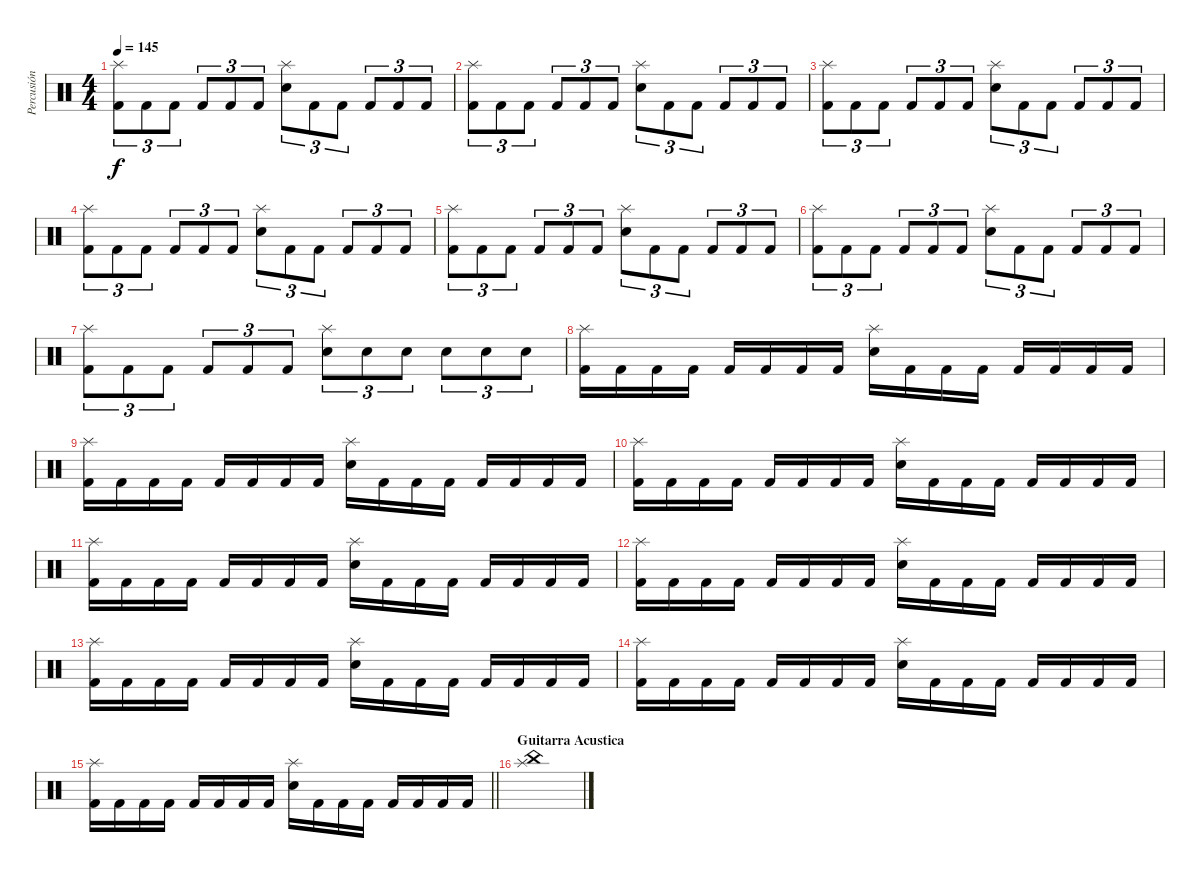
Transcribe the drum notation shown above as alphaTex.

\track ("Percusión" "Percusión") {instrument percussion}
\staff {score}
\articulation defaults
\ts (4 4)
\tempo 145
\clef neutral
\ks c
("Splash (hit)" "Kick (hit) 2").8{tu (3 2) dy f} "Kick (hit) 2".8{tu (3 2)} "Kick (hit) 2".8{tu (3 2)} "Kick (hit) 2".8{tu (3 2)} "Kick (hit) 2".8{tu (3 2)} "Kick (hit) 2".8{tu (3 2)} ("Splash (hit)" "Snare (hit) 2").8{tu (3 2)} "Kick (hit) 2".8{tu (3 2)} "Kick (hit) 2".8{tu (3 2)} "Kick (hit) 2".8{tu (3 2)} "Kick (hit) 2".8{tu (3 2)} "Kick (hit) 2".8{tu (3 2)} |
("Splash (hit)" "Kick (hit) 2").8{tu (3 2)} "Kick (hit) 2".8{tu (3 2)} "Kick (hit) 2".8{tu (3 2)} "Kick (hit) 2".8{tu (3 2)} "Kick (hit) 2".8{tu (3 2)} "Kick (hit) 2".8{tu (3 2)} ("Splash (hit)" "Snare (hit) 2").8{tu (3 2)} "Kick (hit) 2".8{tu (3 2)} "Kick (hit) 2".8{tu (3 2)} "Kick (hit) 2".8{tu (3 2)} "Kick (hit) 2".8{tu (3 2)} "Kick (hit) 2".8{tu (3 2)} |
("Splash (hit)" "Kick (hit) 2").8{tu (3 2)} "Kick (hit) 2".8{tu (3 2)} "Kick (hit) 2".8{tu (3 2)} "Kick (hit) 2".8{tu (3 2)} "Kick (hit) 2".8{tu (3 2)} "Kick (hit) 2".8{tu (3 2)} ("Splash (hit)" "Snare (hit) 2").8{tu (3 2)} "Kick (hit) 2".8{tu (3 2)} "Kick (hit) 2".8{tu (3 2)} "Kick (hit) 2".8{tu (3 2)} "Kick (hit) 2".8{tu (3 2)} "Kick (hit) 2".8{tu (3 2)} |
("Splash (hit)" "Kick (hit) 2").8{tu (3 2)} "Kick (hit) 2".8{tu (3 2)} "Kick (hit) 2".8{tu (3 2)} "Kick (hit) 2".8{tu (3 2)} "Kick (hit) 2".8{tu (3 2)} "Kick (hit) 2".8{tu (3 2)} ("Splash (hit)" "Snare (hit) 2").8{tu (3 2)} "Kick (hit) 2".8{tu (3 2)} "Kick (hit) 2".8{tu (3 2)} "Kick (hit) 2".8{tu (3 2)} "Kick (hit) 2".8{tu (3 2)} "Kick (hit) 2".8{tu (3 2)} |
("Splash (hit)" "Kick (hit) 2").8{tu (3 2)} "Kick (hit) 2".8{tu (3 2)} "Kick (hit) 2".8{tu (3 2)} "Kick (hit) 2".8{tu (3 2)} "Kick (hit) 2".8{tu (3 2)} "Kick (hit) 2".8{tu (3 2)} ("Splash (hit)" "Snare (hit) 2").8{tu (3 2)} "Kick (hit) 2".8{tu (3 2)} "Kick (hit) 2".8{tu (3 2)} "Kick (hit) 2".8{tu (3 2)} "Kick (hit) 2".8{tu (3 2)} "Kick (hit) 2".8{tu (3 2)} |
("Splash (hit)" "Kick (hit) 2").8{tu (3 2)} "Kick (hit) 2".8{tu (3 2)} "Kick (hit) 2".8{tu (3 2)} "Kick (hit) 2".8{tu (3 2)} "Kick (hit) 2".8{tu (3 2)} "Kick (hit) 2".8{tu (3 2)} ("Splash (hit)" "Snare (hit) 2").8{tu (3 2)} "Kick (hit) 2".8{tu (3 2)} "Kick (hit) 2".8{tu (3 2)} "Kick (hit) 2".8{tu (3 2)} "Kick (hit) 2".8{tu (3 2)} "Kick (hit) 2".8{tu (3 2)} |
("Splash (hit)" "Kick (hit) 2").8{tu (3 2)} "Kick (hit) 2".8{tu (3 2)} "Kick (hit) 2".8{tu (3 2)} "Kick (hit) 2".8{tu (3 2)} "Kick (hit) 2".8{tu (3 2)} "Kick (hit) 2".8{tu (3 2)} ("Splash (hit)" "Electric Snare (hit)").8{tu (3 2)} "Electric Snare (hit)".8{tu (3 2)} "Electric Snare (hit)".8{tu (3 2)} "Electric Snare (hit)".8{tu (3 2)} "Electric Snare (hit)".8{tu (3 2)} "Electric Snare (hit)".8{tu (3 2)} |
("Splash (hit)" "Kick (hit) 2").16 "Kick (hit) 2".16 "Kick (hit) 2".16 "Kick (hit) 2".16 "Kick (hit) 2".16 "Kick (hit) 2".16 "Kick (hit) 2".16 "Kick (hit) 2".16 ("Splash (hit)" "Snare (hit) 2").16 "Kick (hit) 2".16 "Kick (hit) 2".16 "Kick (hit) 2".16 "Kick (hit) 2".16 "Kick (hit) 2".16 "Kick (hit) 2".16 "Kick (hit) 2".16 |
("Splash (hit)" "Kick (hit) 2").16 "Kick (hit) 2".16 "Kick (hit) 2".16 "Kick (hit) 2".16 "Kick (hit) 2".16 "Kick (hit) 2".16 "Kick (hit) 2".16 "Kick (hit) 2".16 ("Splash (hit)" "Snare (hit) 2").16 "Kick (hit) 2".16 "Kick (hit) 2".16 "Kick (hit) 2".16 "Kick (hit) 2".16 "Kick (hit) 2".16 "Kick (hit) 2".16 "Kick (hit) 2".16 |
("Splash (hit)" "Kick (hit) 2").16 "Kick (hit) 2".16 "Kick (hit) 2".16 "Kick (hit) 2".16 "Kick (hit) 2".16 "Kick (hit) 2".16 "Kick (hit) 2".16 "Kick (hit) 2".16 ("Splash (hit)" "Snare (hit) 2").16 "Kick (hit) 2".16 "Kick (hit) 2".16 "Kick (hit) 2".16 "Kick (hit) 2".16 "Kick (hit) 2".16 "Kick (hit) 2".16 "Kick (hit) 2".16 |
("Splash (hit)" "Kick (hit) 2").16 "Kick (hit) 2".16 "Kick (hit) 2".16 "Kick (hit) 2".16 "Kick (hit) 2".16 "Kick (hit) 2".16 "Kick (hit) 2".16 "Kick (hit) 2".16 ("Splash (hit)" "Snare (hit) 2").16 "Kick (hit) 2".16 "Kick (hit) 2".16 "Kick (hit) 2".16 "Kick (hit) 2".16 "Kick (hit) 2".16 "Kick (hit) 2".16 "Kick (hit) 2".16 |
("Splash (hit)" "Kick (hit) 2").16 "Kick (hit) 2".16 "Kick (hit) 2".16 "Kick (hit) 2".16 "Kick (hit) 2".16 "Kick (hit) 2".16 "Kick (hit) 2".16 "Kick (hit) 2".16 ("Splash (hit)" "Snare (hit) 2").16 "Kick (hit) 2".16 "Kick (hit) 2".16 "Kick (hit) 2".16 "Kick (hit) 2".16 "Kick (hit) 2".16 "Kick (hit) 2".16 "Kick (hit) 2".16 |
("Splash (hit)" "Kick (hit) 2").16 "Kick (hit) 2".16 "Kick (hit) 2".16 "Kick (hit) 2".16 "Kick (hit) 2".16 "Kick (hit) 2".16 "Kick (hit) 2".16 "Kick (hit) 2".16 ("Splash (hit)" "Snare (hit) 2").16 "Kick (hit) 2".16 "Kick (hit) 2".16 "Kick (hit) 2".16 "Kick (hit) 2".16 "Kick (hit) 2".16 "Kick (hit) 2".16 "Kick (hit) 2".16 |
("Splash (hit)" "Kick (hit) 2").16 "Kick (hit) 2".16 "Kick (hit) 2".16 "Kick (hit) 2".16 "Kick (hit) 2".16 "Kick (hit) 2".16 "Kick (hit) 2".16 "Kick (hit) 2".16 ("Splash (hit)" "Snare (hit) 2").16 "Kick (hit) 2".16 "Kick (hit) 2".16 "Kick (hit) 2".16 "Kick (hit) 2".16 "Kick (hit) 2".16 "Kick (hit) 2".16 "Kick (hit) 2".16 |
\barLineRight lightlight
("Splash (hit)" "Kick (hit) 2").16 "Kick (hit) 2".16 "Kick (hit) 2".16 "Kick (hit) 2".16 "Kick (hit) 2".16 "Kick (hit) 2".16 "Kick (hit) 2".16 "Kick (hit) 2".16 ("Splash (hit)" "Snare (hit) 2").16 "Kick (hit) 2".16 "Kick (hit) 2".16 "Kick (hit) 2".16 "Kick (hit) 2".16 "Kick (hit) 2".16 "Kick (hit) 2".16 "Kick (hit) 2".16 |
\section ("" "Guitarra Acustica")
("Splash (hit)" "China (hit)").1
